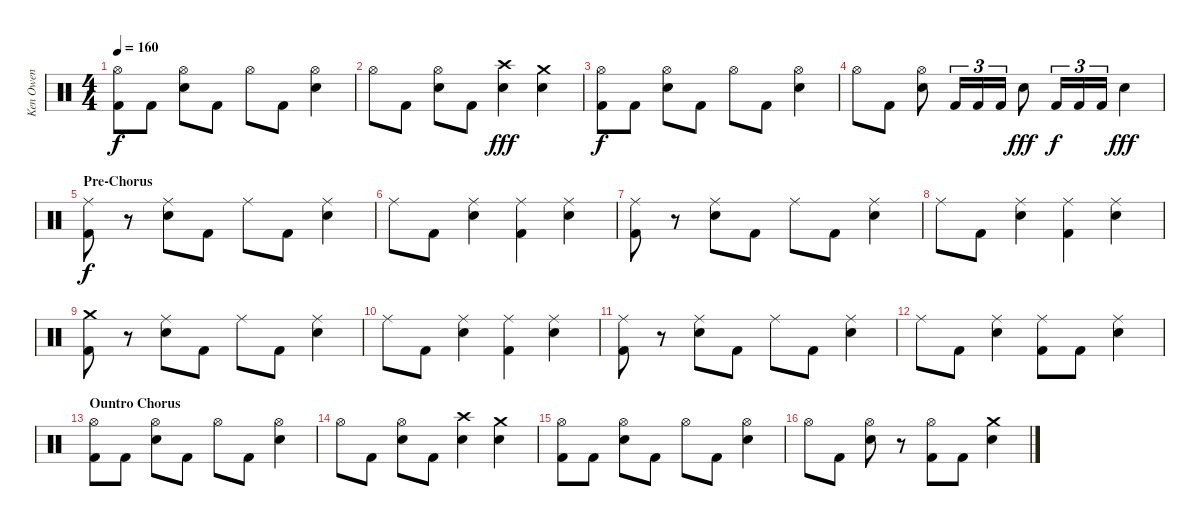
\track ("Ken Owen" "Ken Owen") {instrument percussion}
\staff {score}
\articulation defaults
\ts (4 4)
\tempo 160
\clef neutral
\ks c
("Hi-Hat (open)" "Kick (hit) 2").8{dy f} "Kick (hit) 2".8 ("Hi-Hat (open)" "Electric Snare (hit)").8 "Kick (hit) 2".8 "Hi-Hat (open)".8 "Kick (hit) 2".8 ("Hi-Hat (open)" "Electric Snare (hit)").4 |
"Hi-Hat (open)".8 "Kick (hit) 2".8 ("Hi-Hat (open)" "Electric Snare (hit)").8 "Kick (hit) 2".8 ("Crash high (hit)" "Electric Snare (hit)").4{dy fff} ("Crash medium (hit)" "Electric Snare (hit)").4 |
("Hi-Hat (open)" "Kick (hit) 2").8{dy f} "Kick (hit) 2".8 ("Hi-Hat (open)" "Electric Snare (hit)").8 "Kick (hit) 2".8 "Hi-Hat (open)".8 "Kick (hit) 2".8 ("Hi-Hat (open)" "Electric Snare (hit)").4 |
"Hi-Hat (open)".8 "Kick (hit) 2".8 ("Hi-Hat (open)" "Electric Snare (hit)").8 "Kick (hit) 2".16{tu (3 2)} "Kick (hit) 2".16{tu (3 2)} "Kick (hit) 2".16{tu (3 2)} "Electric Snare (hit)".8{dy fff} "Kick (hit) 2".16{tu (3 2) dy f} "Kick (hit) 2".16{tu (3 2)} "Kick (hit) 2".16{tu (3 2)} "Electric Snare (hit)".4{dy fff} |
\section ("" "Pre-Chorus")
("Ride (middle)" "Kick (hit) 2").8{dy f} r.8 ("Ride (middle)" "Electric Snare (hit)").8 "Kick (hit) 2".8 "Ride (middle)".8 "Kick (hit) 2".8 ("Ride (middle)" "Electric Snare (hit)").4 |
"Ride (middle)".8 "Kick (hit) 2".8 ("Ride (middle)" "Electric Snare (hit)").4 ("Ride (middle)" "Kick (hit) 2").4 ("Ride (middle)" "Electric Snare (hit)").4 |
("Ride (middle)" "Kick (hit) 2").8 r.8 ("Ride (middle)" "Electric Snare (hit)").8 "Kick (hit) 2".8 "Ride (middle)".8 "Kick (hit) 2".8 ("Ride (middle)" "Electric Snare (hit)").4 |
"Ride (middle)".8 "Kick (hit) 2".8 ("Ride (middle)" "Electric Snare (hit)").4 ("Ride (middle)" "Kick (hit) 2").4 ("Ride (middle)" "Electric Snare (hit)").4 |
("Crash medium (hit)" "Kick (hit) 2").8 r.8 ("Ride (middle)" "Electric Snare (hit)").8 "Kick (hit) 2".8 "Ride (middle)".8 "Kick (hit) 2".8 ("Ride (middle)" "Electric Snare (hit)").4 |
"Ride (middle)".8 "Kick (hit) 2".8 ("Ride (middle)" "Electric Snare (hit)").4 ("Ride (middle)" "Kick (hit) 2").4 ("Ride (middle)" "Electric Snare (hit)").4 |
("Ride (middle)" "Kick (hit) 2").8 r.8 ("Ride (middle)" "Electric Snare (hit)").8 "Kick (hit) 2".8 "Ride (middle)".8 "Kick (hit) 2".8 ("Ride (middle)" "Electric Snare (hit)").4 |
"Ride (middle)".8 "Kick (hit) 2".8 ("Ride (middle)" "Electric Snare (hit)").4 ("Ride (middle)" "Kick (hit) 2").8 "Kick (hit) 2".8 ("Ride (middle)" "Electric Snare (hit)").4 |
\section ("" "Ountro Chorus")
("Hi-Hat (open)" "Kick (hit) 2").8 "Kick (hit) 2".8 ("Hi-Hat (open)" "Electric Snare (hit)").8 "Kick (hit) 2".8 "Hi-Hat (open)".8 "Kick (hit) 2".8 ("Hi-Hat (open)" "Electric Snare (hit)").4 |
"Hi-Hat (open)".8 "Kick (hit) 2".8 ("Hi-Hat (open)" "Electric Snare (hit)").8 "Kick (hit) 2".8 ("Crash high (hit)" "Electric Snare (hit)").4 ("Crash medium (hit)" "Electric Snare (hit)").4 |
("Hi-Hat (open)" "Kick (hit) 2").8 "Kick (hit) 2".8 ("Hi-Hat (open)" "Electric Snare (hit)").8 "Kick (hit) 2".8 "Hi-Hat (open)".8 "Kick (hit) 2".8 ("Hi-Hat (open)" "Electric Snare (hit)").4 |
"Hi-Hat (open)".8 "Kick (hit) 2".8 ("Hi-Hat (open)" "Electric Snare (hit)").8 r.8 ("Hi-Hat (open)" "Kick (hit) 2").8 "Kick (hit) 2".8 ("Crash medium (hit)" "Electric Snare (hit)").4
